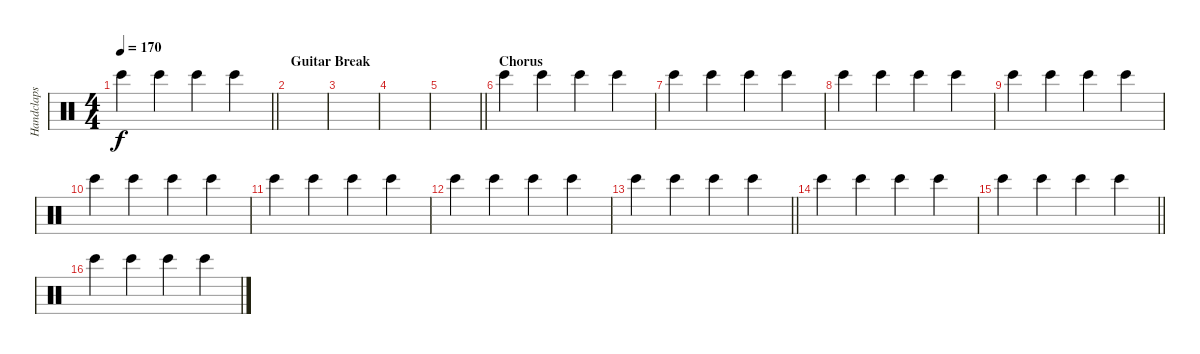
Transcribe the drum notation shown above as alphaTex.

\track ("Handclaps" "Handclaps") {instrument percussion}
\staff {score}
\articulation defaults
\ts (4 4)
\tempo 170
\clef neutral
\barLineRight lightlight
\ks c "Bongo High (hit)".4{dy f} "Bongo High (hit)".4 "Bongo High (hit)".4 "Bongo High (hit)".4
|
\section ("" "Guitar Break")
|
|
|
\barLineRight lightlight
|
\section ("" "Chorus")
"Bongo High (hit)".4 "Bongo High (hit)".4 "Bongo High (hit)".4 "Bongo High (hit)".4 |
"Bongo High (hit)".4 "Bongo High (hit)".4 "Bongo High (hit)".4 "Bongo High (hit)".4 |
"Bongo High (hit)".4 "Bongo High (hit)".4 "Bongo High (hit)".4 "Bongo High (hit)".4 |
"Bongo High (hit)".4 "Bongo High (hit)".4 "Bongo High (hit)".4 "Bongo High (hit)".4 |
"Bongo High (hit)".4 "Bongo High (hit)".4 "Bongo High (hit)".4 "Bongo High (hit)".4 |
"Bongo High (hit)".4 "Bongo High (hit)".4 "Bongo High (hit)".4 "Bongo High (hit)".4 |
"Bongo High (hit)".4 "Bongo High (hit)".4 "Bongo High (hit)".4 "Bongo High (hit)".4 |
\barLineRight lightlight "Bongo High (hit)".4 "Bongo High (hit)".4 "Bongo High (hit)".4 "Bongo High (hit)".4
|
"Bongo High (hit)".4 "Bongo High (hit)".4 "Bongo High (hit)".4 "Bongo High (hit)".4 |
\barLineRight lightlight "Bongo High (hit)".4 "Bongo High (hit)".4 "Bongo High (hit)".4 "Bongo High (hit)".4
|
"Bongo High (hit)".4 "Bongo High (hit)".4 "Bongo High (hit)".4 "Bongo High (hit)".4
